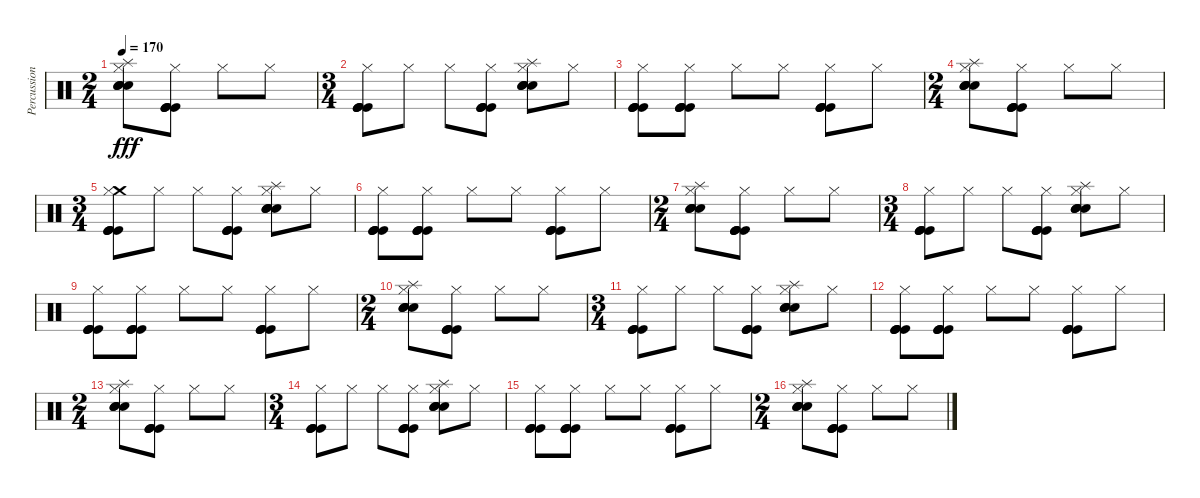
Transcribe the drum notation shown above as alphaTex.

\track ("Percussion" "Percussion") {instrument percussion}
\staff {score}
\articulation defaults
\ts (2 4)
\tempo 170
\clef neutral
\ks c
("Splash (hit)" "Hi-Hat (closed)" "Hand Clap (hit)" "Hand Clap (hit)" "Hand Clap (hit)" "Hand Clap (hit)").8{dy fff} ("Hi-Hat (closed)" "Kick (hit)" "Kick (hit)" "Kick (hit)" "Kick (hit)").8 "Hi-Hat (closed)".8 "Hi-Hat (closed)".8 |
\ts (3 4)
("Hi-Hat (closed)" "Kick (hit)" "Kick (hit)" "Kick (hit)" "Kick (hit)").8 "Hi-Hat (closed)".8 "Hi-Hat (closed)".8 ("Hi-Hat (closed)" "Kick (hit)" "Kick (hit)" "Kick (hit)" "Kick (hit)").8 ("Splash (hit)" "Hi-Hat (closed)" "Hand Clap (hit)" "Hand Clap (hit)" "Hand Clap (hit)" "Hand Clap (hit)").8 "Hi-Hat (closed)".8 |
("Hi-Hat (closed)" "Kick (hit)" "Kick (hit)" "Kick (hit)" "Kick (hit)").8 ("Hi-Hat (closed)" "Kick (hit)" "Kick (hit)" "Kick (hit)" "Kick (hit)").8 "Hi-Hat (closed)".8 "Hi-Hat (closed)".8 ("Hi-Hat (closed)" "Kick (hit)" "Kick (hit)" "Kick (hit)" "Kick (hit)").8 "Hi-Hat (closed)".8 |
\ts (2 4)
("Splash (hit)" "Hi-Hat (closed)" "Hand Clap (hit)" "Hand Clap (hit)" "Hand Clap (hit)" "Hand Clap (hit)").8 ("Hi-Hat (closed)" "Kick (hit)" "Kick (hit)" "Kick (hit)" "Kick (hit)").8 "Hi-Hat (closed)".8 "Hi-Hat (closed)".8 |
\ts (3 4)
("Crash medium (hit)" "Hi-Hat (closed)" "Kick (hit)" "Kick (hit)" "Kick (hit)" "Kick (hit)").8 "Hi-Hat (closed)".8 "Hi-Hat (closed)".8 ("Hi-Hat (closed)" "Kick (hit)" "Kick (hit)" "Kick (hit)" "Kick (hit)").8 ("Splash (hit)" "Hi-Hat (closed)" "Hand Clap (hit)" "Hand Clap (hit)" "Hand Clap (hit)" "Hand Clap (hit)").8 "Hi-Hat (closed)".8 |
("Hi-Hat (closed)" "Kick (hit)" "Kick (hit)" "Kick (hit)" "Kick (hit)").8 ("Hi-Hat (closed)" "Kick (hit)" "Kick (hit)" "Kick (hit)" "Kick (hit)").8 "Hi-Hat (closed)".8 "Hi-Hat (closed)".8 ("Hi-Hat (closed)" "Kick (hit)" "Kick (hit)" "Kick (hit)" "Kick (hit)").8 "Hi-Hat (closed)".8 |
\ts (2 4)
("Splash (hit)" "Hi-Hat (closed)" "Hand Clap (hit)" "Hand Clap (hit)" "Hand Clap (hit)" "Hand Clap (hit)").8 ("Hi-Hat (closed)" "Kick (hit)" "Kick (hit)" "Kick (hit)" "Kick (hit)").8 "Hi-Hat (closed)".8 "Hi-Hat (closed)".8 |
\ts (3 4)
("Hi-Hat (closed)" "Kick (hit)" "Kick (hit)" "Kick (hit)" "Kick (hit)").8 "Hi-Hat (closed)".8 "Hi-Hat (closed)".8 ("Hi-Hat (closed)" "Kick (hit)" "Kick (hit)" "Kick (hit)" "Kick (hit)").8 ("Splash (hit)" "Hi-Hat (closed)" "Hand Clap (hit)" "Hand Clap (hit)" "Hand Clap (hit)" "Hand Clap (hit)").8 "Hi-Hat (closed)".8 |
("Hi-Hat (closed)" "Kick (hit)" "Kick (hit)" "Kick (hit)" "Kick (hit)").8 ("Hi-Hat (closed)" "Kick (hit)" "Kick (hit)" "Kick (hit)" "Kick (hit)").8 "Hi-Hat (closed)".8 "Hi-Hat (closed)".8 ("Hi-Hat (closed)" "Kick (hit)" "Kick (hit)" "Kick (hit)" "Kick (hit)").8 "Hi-Hat (closed)".8 |
\ts (2 4)
("Splash (hit)" "Hi-Hat (closed)" "Hand Clap (hit)" "Hand Clap (hit)" "Hand Clap (hit)" "Hand Clap (hit)").8 ("Hi-Hat (closed)" "Kick (hit)" "Kick (hit)" "Kick (hit)" "Kick (hit)").8 "Hi-Hat (closed)".8 "Hi-Hat (closed)".8 |
\ts (3 4)
("Hi-Hat (closed)" "Kick (hit)" "Kick (hit)" "Kick (hit)" "Kick (hit)").8 "Hi-Hat (closed)".8 "Hi-Hat (closed)".8 ("Hi-Hat (closed)" "Kick (hit)" "Kick (hit)" "Kick (hit)" "Kick (hit)").8 ("Splash (hit)" "Hi-Hat (closed)" "Hand Clap (hit)" "Hand Clap (hit)" "Hand Clap (hit)" "Hand Clap (hit)").8 "Hi-Hat (closed)".8 |
("Hi-Hat (closed)" "Kick (hit)" "Kick (hit)" "Kick (hit)" "Kick (hit)").8 ("Hi-Hat (closed)" "Kick (hit)" "Kick (hit)" "Kick (hit)" "Kick (hit)").8 "Hi-Hat (closed)".8 "Hi-Hat (closed)".8 ("Hi-Hat (closed)" "Kick (hit)" "Kick (hit)" "Kick (hit)" "Kick (hit)").8 "Hi-Hat (closed)".8 |
\ts (2 4)
("Splash (hit)" "Hi-Hat (closed)" "Hand Clap (hit)" "Hand Clap (hit)" "Hand Clap (hit)" "Hand Clap (hit)").8 ("Hi-Hat (closed)" "Kick (hit)" "Kick (hit)" "Kick (hit)" "Kick (hit)").8 "Hi-Hat (closed)".8 "Hi-Hat (closed)".8 |
\ts (3 4)
("Hi-Hat (closed)" "Kick (hit)" "Kick (hit)" "Kick (hit)" "Kick (hit)").8 "Hi-Hat (closed)".8 "Hi-Hat (closed)".8 ("Hi-Hat (closed)" "Kick (hit)" "Kick (hit)" "Kick (hit)" "Kick (hit)").8 ("Splash (hit)" "Hi-Hat (closed)" "Hand Clap (hit)" "Hand Clap (hit)" "Hand Clap (hit)" "Hand Clap (hit)").8 "Hi-Hat (closed)".8 |
("Hi-Hat (closed)" "Kick (hit)" "Kick (hit)" "Kick (hit)" "Kick (hit)").8 ("Hi-Hat (closed)" "Kick (hit)" "Kick (hit)" "Kick (hit)" "Kick (hit)").8 "Hi-Hat (closed)".8 "Hi-Hat (closed)".8 ("Hi-Hat (closed)" "Kick (hit)" "Kick (hit)" "Kick (hit)" "Kick (hit)").8 "Hi-Hat (closed)".8 |
\ts (2 4)
("Splash (hit)" "Hi-Hat (closed)" "Hand Clap (hit)" "Hand Clap (hit)" "Hand Clap (hit)" "Hand Clap (hit)").8 ("Hi-Hat (closed)" "Kick (hit)" "Kick (hit)" "Kick (hit)" "Kick (hit)").8 "Hi-Hat (closed)".8 "Hi-Hat (closed)".8
